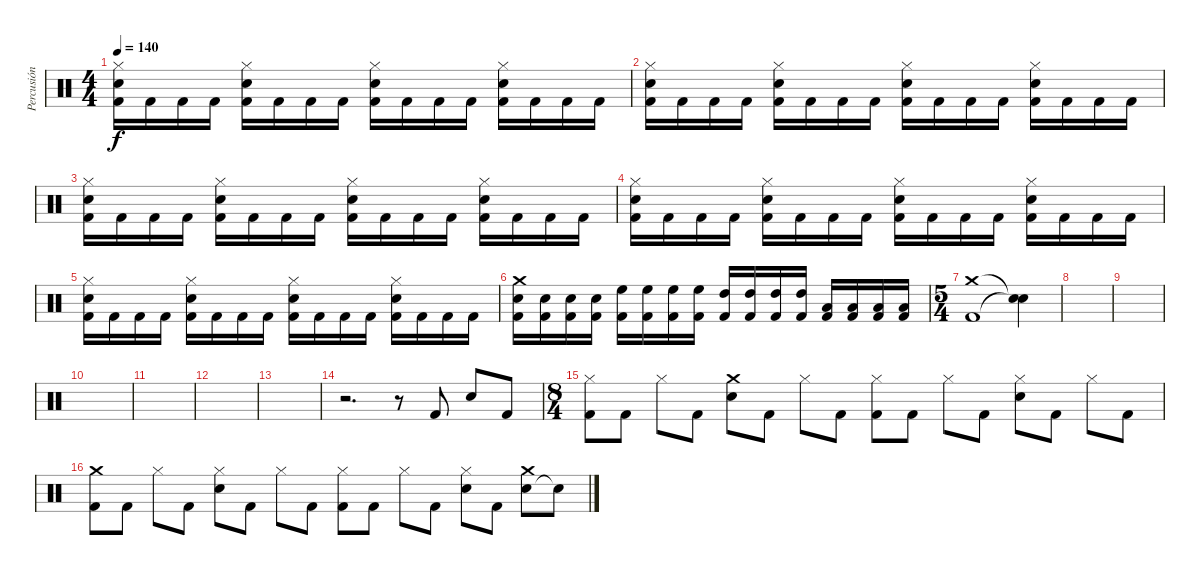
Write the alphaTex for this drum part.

\track ("Percusión" "Percusión") {instrument percussion}
\staff {score}
\articulation defaults
\ts (4 4)
\tempo 140
\clef neutral
\ks c
("Kick (hit) 2" "Electric Snare (hit)" "Hi-Hat (closed)").16{dy f} "Kick (hit) 2".16 "Kick (hit) 2".16 "Kick (hit) 2".16 ("Kick (hit) 2" "Electric Snare (hit)" "Hi-Hat (closed)").16 "Kick (hit) 2".16 "Kick (hit) 2".16 "Kick (hit) 2".16 ("Kick (hit) 2" "Electric Snare (hit)" "Hi-Hat (closed)").16 "Kick (hit) 2".16 "Kick (hit) 2".16 "Kick (hit) 2".16 ("Kick (hit) 2" "Electric Snare (hit)" "Hi-Hat (closed)").16 "Kick (hit) 2".16 "Kick (hit) 2".16 "Kick (hit) 2".16 |
("Kick (hit) 2" "Electric Snare (hit)" "Hi-Hat (closed)").16 "Kick (hit) 2".16 "Kick (hit) 2".16 "Kick (hit) 2".16 ("Kick (hit) 2" "Electric Snare (hit)" "Hi-Hat (closed)").16 "Kick (hit) 2".16 "Kick (hit) 2".16 "Kick (hit) 2".16 ("Kick (hit) 2" "Electric Snare (hit)" "Hi-Hat (closed)").16 "Kick (hit) 2".16 "Kick (hit) 2".16 "Kick (hit) 2".16 ("Kick (hit) 2" "Electric Snare (hit)" "Hi-Hat (closed)").16 "Kick (hit) 2".16 "Kick (hit) 2".16 "Kick (hit) 2".16 |
("Kick (hit) 2" "Electric Snare (hit)" "Hi-Hat (closed)").16 "Kick (hit) 2".16 "Kick (hit) 2".16 "Kick (hit) 2".16 ("Kick (hit) 2" "Electric Snare (hit)" "Hi-Hat (closed)").16 "Kick (hit) 2".16 "Kick (hit) 2".16 "Kick (hit) 2".16 ("Kick (hit) 2" "Electric Snare (hit)" "Hi-Hat (closed)").16 "Kick (hit) 2".16 "Kick (hit) 2".16 "Kick (hit) 2".16 ("Kick (hit) 2" "Electric Snare (hit)" "Hi-Hat (closed)").16 "Kick (hit) 2".16 "Kick (hit) 2".16 "Kick (hit) 2".16 |
("Kick (hit) 2" "Electric Snare (hit)" "Hi-Hat (closed)").16 "Kick (hit) 2".16 "Kick (hit) 2".16 "Kick (hit) 2".16 ("Kick (hit) 2" "Electric Snare (hit)" "Hi-Hat (closed)").16 "Kick (hit) 2".16 "Kick (hit) 2".16 "Kick (hit) 2".16 ("Kick (hit) 2" "Electric Snare (hit)" "Hi-Hat (closed)").16 "Kick (hit) 2".16 "Kick (hit) 2".16 "Kick (hit) 2".16 ("Kick (hit) 2" "Electric Snare (hit)" "Hi-Hat (closed)").16 "Kick (hit) 2".16 "Kick (hit) 2".16 "Kick (hit) 2".16 |
("Kick (hit) 2" "Electric Snare (hit)" "Hi-Hat (closed)").16 "Kick (hit) 2".16 "Kick (hit) 2".16 "Kick (hit) 2".16 ("Kick (hit) 2" "Electric Snare (hit)" "Hi-Hat (closed)").16 "Kick (hit) 2".16 "Kick (hit) 2".16 "Kick (hit) 2".16 ("Kick (hit) 2" "Electric Snare (hit)" "Hi-Hat (closed)").16 "Kick (hit) 2".16 "Kick (hit) 2".16 "Kick (hit) 2".16 ("Kick (hit) 2" "Electric Snare (hit)" "Hi-Hat (closed)").16 "Kick (hit) 2".16 "Kick (hit) 2".16 "Kick (hit) 2".16 |
("Kick (hit) 2" "Electric Snare (hit)" "Crash medium (hit)").16 ("Kick (hit) 2" "Electric Snare (hit)").16 ("Kick (hit) 2" "Electric Snare (hit)").16 ("Kick (hit) 2" "Electric Snare (hit)").16 ("Kick (hit) 2" "High Floor Tom (hit)").16 ("Kick (hit) 2" "High Floor Tom (hit)").16 ("Kick (hit) 2" "High Floor Tom (hit)").16 ("Kick (hit) 2" "High Floor Tom (hit)").16 ("Kick (hit) 2" "High Tom (hit)").16 ("Kick (hit) 2" "High Tom (hit)").16 ("Kick (hit) 2" "High Tom (hit)").16 ("Kick (hit) 2" "High Tom (hit)").16 ("Kick (hit) 2" "Low Tom (hit)").16 ("Kick (hit) 2" "Low Tom (hit)").16 ("Kick (hit) 2" "Low Tom (hit)").16 ("Kick (hit) 2" "Low Tom (hit)").16 |
\ts (5 4)
("Kick (hit) 2" "Crash medium (hit)").1 ("Snare (hit)"{t} "Snare (hit)"{t}).4 |
|
|
|
|
|
|
r.2{d} r.8 "Kick (hit) 2".8 "Electric Snare (hit)".8 "Kick (hit) 2".8 |
\ts (8 4)
("Kick (hit) 2" "Hi-Hat (closed)").8 "Kick (hit) 2".8 "Hi-Hat (closed)".8 "Kick (hit) 2".8 ("Electric Snare (hit)" "Crash medium (hit)").8 "Kick (hit) 2".8 "Hi-Hat (closed)".8 "Kick (hit) 2".8 ("Kick (hit) 2" "Hi-Hat (closed)").8 "Kick (hit) 2".8 "Hi-Hat (closed)".8 "Kick (hit) 2".8 ("Electric Snare (hit)" "Hi-Hat (closed)").8 "Kick (hit) 2".8 "Hi-Hat (closed)".8 "Kick (hit) 2".8 |
("Kick (hit) 2" "Crash medium (hit)").8 "Kick (hit) 2".8 "Hi-Hat (closed)".8 "Kick (hit) 2".8 ("Electric Snare (hit)" "Hi-Hat (closed)").8 "Kick (hit) 2".8 "Hi-Hat (closed)".8 "Kick (hit) 2".8 ("Kick (hit) 2" "Hi-Hat (closed)").8 "Kick (hit) 2".8 "Hi-Hat (closed)".8 "Kick (hit) 2".8 ("Electric Snare (hit)" "Hi-Hat (closed)").8 "Kick (hit) 2".8 ("Electric Snare (hit)" "Crash medium (hit)").8 "Snare (hit)"{t}.8
